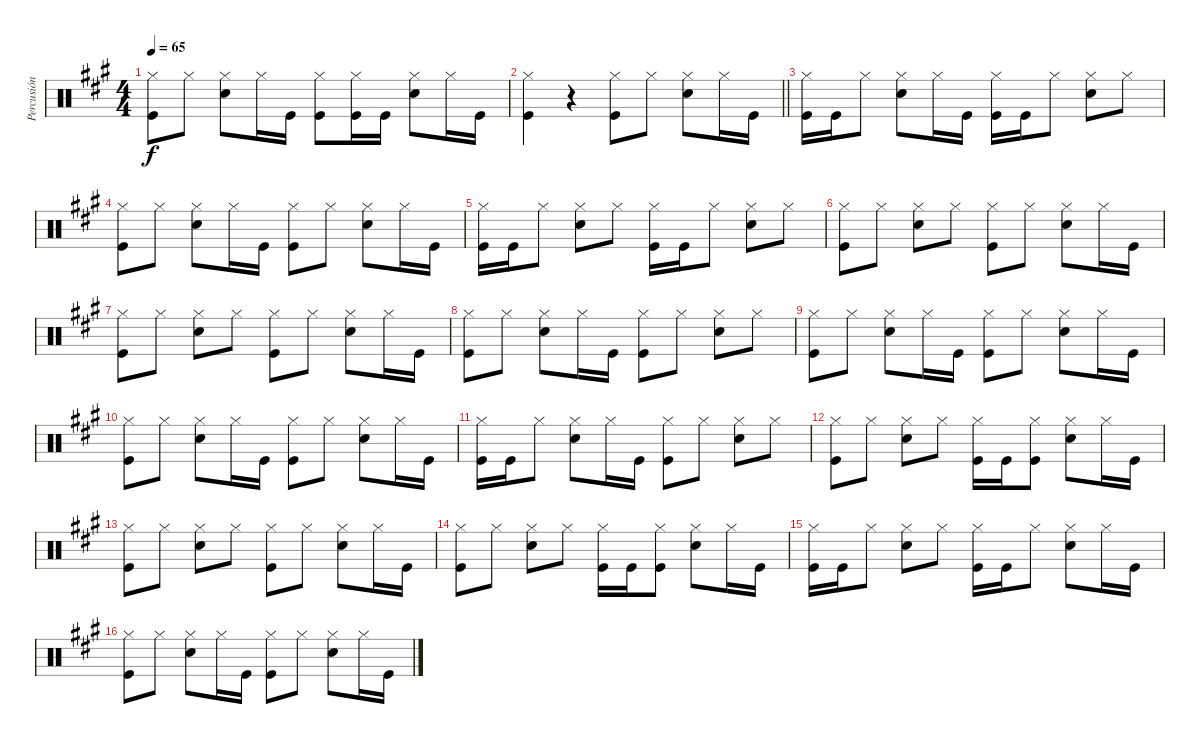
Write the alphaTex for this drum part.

\track ("Percusión" "Percusión") {instrument percussion}
\staff {score}
\articulation defaults
\ts (4 4)
\tempo 65
\clef neutral
\ks f#minor
("Hi-Hat (closed)" "Kick (hit)").8{dy f} "Hi-Hat (closed)".8 ("Hi-Hat (closed)" "Snare (hit) 2").8 "Hi-Hat (closed)".16 "Kick (hit)".16 ("Hi-Hat (closed)" "Kick (hit)").8 ("Hi-Hat (closed)" "Kick (hit)").16 "Kick (hit)".16 ("Hi-Hat (closed)" "Snare (hit) 2").8 "Hi-Hat (closed)".16 "Kick (hit)".16 |
\barLineRight lightlight
("Hi-Hat (closed)" "Kick (hit)").4 r.4 ("Hi-Hat (closed)" "Kick (hit)").8 "Hi-Hat (closed)".8 ("Hi-Hat (closed)" "Snare (hit) 2").8 "Hi-Hat (closed)".16 "Kick (hit)".16 |
("Hi-Hat (closed)" "Kick (hit)").16 "Kick (hit)".16 "Hi-Hat (closed)".8 ("Hi-Hat (closed)" "Snare (hit) 2").8 "Hi-Hat (closed)".16 "Kick (hit)".16 ("Hi-Hat (closed)" "Kick (hit)").16 "Kick (hit)".16 "Hi-Hat (closed)".8 ("Hi-Hat (closed)" "Snare (hit) 2").8 "Hi-Hat (closed)".8 |
("Hi-Hat (closed)" "Kick (hit)").8 "Hi-Hat (closed)".8 ("Hi-Hat (closed)" "Snare (hit) 2").8 "Hi-Hat (closed)".16 "Kick (hit)".16 ("Hi-Hat (closed)" "Kick (hit)").8 "Hi-Hat (closed)".8 ("Hi-Hat (closed)" "Snare (hit) 2").8 "Hi-Hat (closed)".16 "Kick (hit)".16 |
("Hi-Hat (closed)" "Kick (hit)").16 "Kick (hit)".16 "Hi-Hat (closed)".8 ("Hi-Hat (closed)" "Snare (hit) 2").8 "Hi-Hat (closed)".8 ("Hi-Hat (closed)" "Kick (hit)").16 "Kick (hit)".16 "Hi-Hat (closed)".8 ("Hi-Hat (closed)" "Snare (hit) 2").8 "Hi-Hat (closed)".8 |
("Hi-Hat (closed)" "Kick (hit)").8 "Hi-Hat (closed)".8 ("Hi-Hat (closed)" "Snare (hit) 2").8 "Hi-Hat (closed)".8 ("Hi-Hat (closed)" "Kick (hit)").8 "Hi-Hat (closed)".8 ("Hi-Hat (closed)" "Snare (hit) 2").8 "Hi-Hat (closed)".16 "Kick (hit)".16 |
("Hi-Hat (closed)" "Kick (hit)").8 "Hi-Hat (closed)".8 ("Hi-Hat (closed)" "Snare (hit) 2").8 "Hi-Hat (closed)".8 ("Hi-Hat (closed)" "Kick (hit)").8 "Hi-Hat (closed)".8 ("Hi-Hat (closed)" "Snare (hit) 2").8 "Hi-Hat (closed)".16 "Kick (hit)".16 |
("Hi-Hat (closed)" "Kick (hit)").8 "Hi-Hat (closed)".8 ("Hi-Hat (closed)" "Snare (hit) 2").8 "Hi-Hat (closed)".16 "Kick (hit)".16 ("Hi-Hat (closed)" "Kick (hit)").8 "Hi-Hat (closed)".8 ("Hi-Hat (closed)" "Snare (hit) 2").8 "Hi-Hat (closed)".8 |
("Hi-Hat (closed)" "Kick (hit)").8 "Hi-Hat (closed)".8 ("Hi-Hat (closed)" "Snare (hit) 2").8 "Hi-Hat (closed)".16 "Kick (hit)".16 ("Hi-Hat (closed)" "Kick (hit)").8 "Hi-Hat (closed)".8 ("Hi-Hat (closed)" "Snare (hit) 2").8 "Hi-Hat (closed)".16 "Kick (hit)".16 |
("Hi-Hat (closed)" "Kick (hit)").8 "Hi-Hat (closed)".8 ("Hi-Hat (closed)" "Snare (hit) 2").8 "Hi-Hat (closed)".16 "Kick (hit)".16 ("Hi-Hat (closed)" "Kick (hit)").8 "Hi-Hat (closed)".8 ("Hi-Hat (closed)" "Snare (hit) 2").8 "Hi-Hat (closed)".16 "Kick (hit)".16 |
("Hi-Hat (closed)" "Kick (hit)").16 "Kick (hit)".16 "Hi-Hat (closed)".8 ("Hi-Hat (closed)" "Snare (hit) 2").8 "Hi-Hat (closed)".16 "Kick (hit)".16 ("Hi-Hat (closed)" "Kick (hit)").8 "Hi-Hat (closed)".8 ("Hi-Hat (closed)" "Snare (hit) 2").8 "Hi-Hat (closed)".8 |
("Hi-Hat (closed)" "Kick (hit)").8 "Hi-Hat (closed)".8 ("Hi-Hat (closed)" "Snare (hit) 2").8 "Hi-Hat (closed)".8 ("Hi-Hat (closed)" "Kick (hit)").16 "Kick (hit)".16 ("Hi-Hat (closed)" "Kick (hit)").8 ("Hi-Hat (closed)" "Snare (hit) 2").8 "Hi-Hat (closed)".16 "Kick (hit)".16 |
("Hi-Hat (closed)" "Kick (hit)").8 "Hi-Hat (closed)".8 ("Hi-Hat (closed)" "Snare (hit) 2").8 "Hi-Hat (closed)".8 ("Hi-Hat (closed)" "Kick (hit)").8 "Hi-Hat (closed)".8 ("Hi-Hat (closed)" "Snare (hit) 2").8 "Hi-Hat (closed)".16 "Kick (hit)".16 |
("Hi-Hat (closed)" "Kick (hit)").8 "Hi-Hat (closed)".8 ("Hi-Hat (closed)" "Snare (hit) 2").8 "Hi-Hat (closed)".8 ("Hi-Hat (closed)" "Kick (hit)").16 "Kick (hit)".16 ("Hi-Hat (closed)" "Kick (hit)").8 ("Hi-Hat (closed)" "Snare (hit) 2").8 "Hi-Hat (closed)".16 "Kick (hit)".16 |
("Hi-Hat (closed)" "Kick (hit)").16 "Kick (hit)".16 "Hi-Hat (closed)".8 ("Hi-Hat (closed)" "Snare (hit) 2").8 "Hi-Hat (closed)".8 ("Hi-Hat (closed)" "Kick (hit)").16 "Kick (hit)".16 "Hi-Hat (closed)".8 ("Hi-Hat (closed)" "Snare (hit) 2").8 "Hi-Hat (closed)".16 "Kick (hit)".16 |
("Hi-Hat (closed)" "Kick (hit)").8 "Hi-Hat (closed)".8 ("Hi-Hat (closed)" "Snare (hit) 2").8 "Hi-Hat (closed)".16 "Kick (hit)".16 ("Hi-Hat (closed)" "Kick (hit)").8 "Hi-Hat (closed)".8 ("Hi-Hat (closed)" "Snare (hit) 2").8 "Hi-Hat (closed)".16 "Kick (hit)".16
